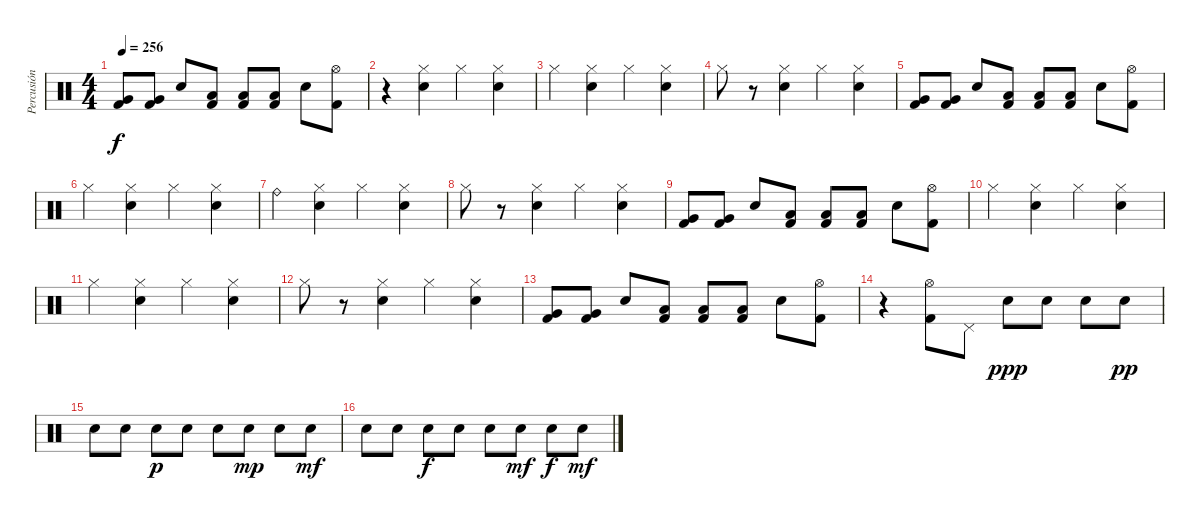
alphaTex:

\track ("Percusión" "Percusión") {instrument percussion}
\staff {score}
\articulation defaults
\ts (4 4)
\tempo 256
\clef neutral
\ks c
("Kick (hit) 2" "Very Low Tom (hit)").8{dy f} ("Kick (hit) 2" "Very Low Tom (hit)").8 "Electric Snare (hit)".8 ("Kick (hit) 2" "Low Floor Tom (hit)").8 ("Kick (hit) 2" "Low Floor Tom (hit)").8 ("Kick (hit) 2" "Low Floor Tom (hit)").8 "Electric Snare (hit)".8 ("Kick (hit) 2" "Hi-Hat (open)").8 |
r.4 ("Electric Snare (hit)" "Hi-Hat (closed)").4 "Hi-Hat (closed)".4 ("Electric Snare (hit)" "Hi-Hat (closed)").4 |
"Hi-Hat (closed)".4 ("Electric Snare (hit)" "Hi-Hat (closed)").4 "Hi-Hat (closed)".4 ("Electric Snare (hit)" "Hi-Hat (closed)").4 |
"Hi-Hat (closed)".8 r.8 ("Electric Snare (hit)" "Hi-Hat (closed)").4 "Hi-Hat (closed)".4 ("Electric Snare (hit)" "Hi-Hat (closed)").4 |
("Kick (hit) 2" "Very Low Tom (hit)").8 ("Kick (hit) 2" "Very Low Tom (hit)").8 "Electric Snare (hit)".8 ("Kick (hit) 2" "Low Floor Tom (hit)").8 ("Kick (hit) 2" "Low Floor Tom (hit)").8 ("Kick (hit) 2" "Low Floor Tom (hit)").8 "Electric Snare (hit)".8 ("Kick (hit) 2" "Hi-Hat (open)").8 |
"Hi-Hat (closed)".4 ("Electric Snare (hit)" "Hi-Hat (closed)").4 "Hi-Hat (closed)".4 ("Electric Snare (hit)" "Hi-Hat (closed)").4 |
"Ride (bell)".4 ("Electric Snare (hit)" "Hi-Hat (closed)").4 "Hi-Hat (closed)".4 ("Electric Snare (hit)" "Hi-Hat (closed)").4 |
"Hi-Hat (closed)".8 r.8 ("Electric Snare (hit)" "Hi-Hat (closed)").4 "Hi-Hat (closed)".4 ("Electric Snare (hit)" "Hi-Hat (closed)").4 |
("Kick (hit) 2" "Very Low Tom (hit)").8 ("Kick (hit) 2" "Very Low Tom (hit)").8 "Electric Snare (hit)".8 ("Kick (hit) 2" "Low Floor Tom (hit)").8 ("Kick (hit) 2" "Low Floor Tom (hit)").8 ("Kick (hit) 2" "Low Floor Tom (hit)").8 "Electric Snare (hit)".8 ("Kick (hit) 2" "Hi-Hat (open)").8 |
"Hi-Hat (closed)".4 ("Electric Snare (hit)" "Hi-Hat (closed)").4 "Hi-Hat (closed)".4 ("Electric Snare (hit)" "Hi-Hat (closed)").4 |
"Hi-Hat (closed)".4 ("Electric Snare (hit)" "Hi-Hat (closed)").4 "Hi-Hat (closed)".4 ("Electric Snare (hit)" "Hi-Hat (closed)").4 |
"Hi-Hat (closed)".8 r.8 ("Electric Snare (hit)" "Hi-Hat (closed)").4 "Hi-Hat (closed)".4 ("Electric Snare (hit)" "Hi-Hat (closed)").4 |
("Kick (hit) 2" "Very Low Tom (hit)").8 ("Kick (hit) 2" "Very Low Tom (hit)").8 "Electric Snare (hit)".8 ("Kick (hit) 2" "Low Floor Tom (hit)").8 ("Kick (hit) 2" "Low Floor Tom (hit)").8 ("Kick (hit) 2" "Low Floor Tom (hit)").8 "Electric Snare (hit)".8 ("Kick (hit) 2" "Hi-Hat (open)").8 |
r.4 ("Kick (hit) 2" "Hi-Hat (open)").8 "Pedal Hi-Hat (hit)".8 "Electric Snare (hit)".8{dy ppp} "Electric Snare (hit)".8 "Electric Snare (hit)".8 "Electric Snare (hit)".8{dy pp} |
"Electric Snare (hit)".8 "Electric Snare (hit)".8 "Electric Snare (hit)".8{dy p} "Electric Snare (hit)".8 "Electric Snare (hit)".8 "Electric Snare (hit)".8{dy mp} "Electric Snare (hit)".8 "Electric Snare (hit)".8{dy mf} |
"Electric Snare (hit)".8 "Electric Snare (hit)".8 "Electric Snare (hit)".8{dy f} "Electric Snare (hit)".8 "Electric Snare (hit)".8 "Electric Snare (hit)".8{dy mf} "Electric Snare (hit)".8{dy f} "Electric Snare (hit)".8{dy mf}
